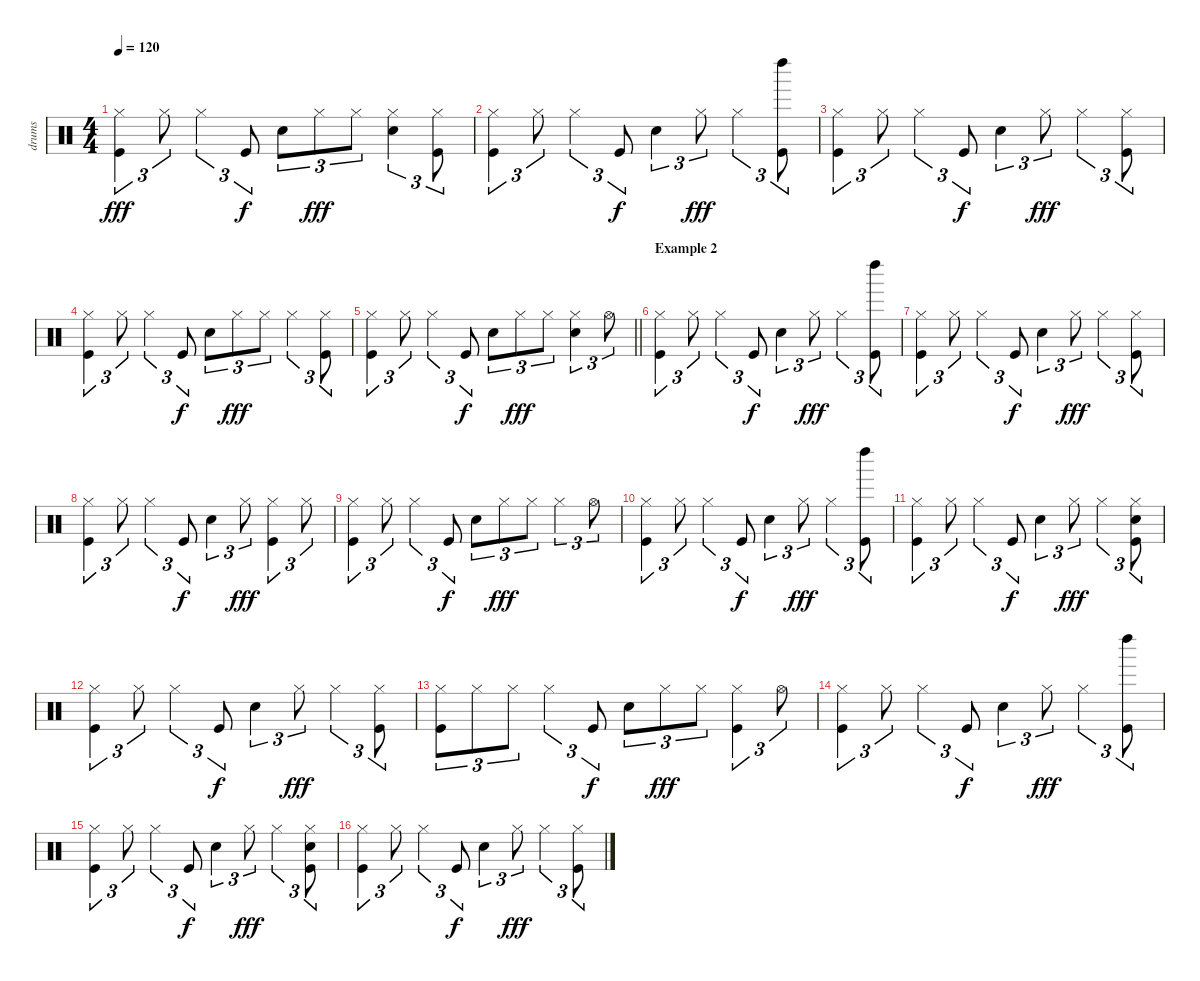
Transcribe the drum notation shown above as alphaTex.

\track ("drums" "drums") {instrument percussion}
\staff {score}
\articulation defaults
\ts (4 4)
\tempo 120
\clef neutral
\ks c
("Hi-Hat (closed)" "Kick (hit)").4{tu (3 2) dy fff} "Hi-Hat (closed)".8{tu (3 2)} "Hi-Hat (closed)".4{tu (3 2)} "Kick (hit)".8{tu (3 2) dy f} "Snare (hit) 2".8{tu (3 2)} "Hi-Hat (closed)".8{tu (3 2) dy fff} "Hi-Hat (closed)".8{tu (3 2)} ("Snare (hit) 2" "Hi-Hat (closed)").4{tu (3 2)} ("Hi-Hat (closed)" "Kick (hit)").8{tu (3 2)} |
("Hi-Hat (closed)" "Kick (hit)").4{tu (3 2)} "Hi-Hat (closed)".8{tu (3 2)} "Hi-Hat (closed)".4{tu (3 2)} "Kick (hit)".8{tu (3 2) dy f} "Snare (hit) 2".4{tu (3 2)} "Hi-Hat (closed)".8{tu (3 2) dy fff} "Hi-Hat (closed)".4{tu (3 2)} ("Left Maraca (hit)" "Kick (hit)").8{tu (3 2)} |
("Hi-Hat (closed)" "Kick (hit)").4{tu (3 2)} "Hi-Hat (closed)".8{tu (3 2)} "Hi-Hat (closed)".4{tu (3 2)} "Kick (hit)".8{tu (3 2) dy f} "Snare (hit) 2".4{tu (3 2)} "Hi-Hat (closed)".8{tu (3 2) dy fff} "Hi-Hat (closed)".4{tu (3 2)} ("Hi-Hat (closed)" "Kick (hit)").8{tu (3 2)} |
("Hi-Hat (closed)" "Kick (hit)").4{tu (3 2)} "Hi-Hat (closed)".8{tu (3 2)} "Hi-Hat (closed)".4{tu (3 2)} "Kick (hit)".8{tu (3 2) dy f} "Snare (hit) 2".8{tu (3 2)} "Hi-Hat (closed)".8{tu (3 2) dy fff} "Hi-Hat (closed)".8{tu (3 2)} "Hi-Hat (closed)".4{tu (3 2)} ("Hi-Hat (closed)" "Kick (hit)").8{tu (3 2)} |
\barLineRight lightlight
("Hi-Hat (closed)" "Kick (hit)").4{tu (3 2)} "Hi-Hat (closed)".8{tu (3 2)} "Hi-Hat (closed)".4{tu (3 2)} "Kick (hit)".8{tu (3 2) dy f} "Snare (hit) 2".8{tu (3 2)} "Hi-Hat (closed)".8{tu (3 2) dy fff} "Hi-Hat (closed)".8{tu (3 2)} ("Snare (hit) 2" "Hi-Hat (closed)").4{tu (3 2)} "Hi-Hat (open)".8{tu (3 2)} |
\section ("" "Example 2")
("Hi-Hat (closed)" "Kick (hit)").4{tu (3 2)} "Hi-Hat (closed)".8{tu (3 2)} "Hi-Hat (closed)".4{tu (3 2)} "Kick (hit)".8{tu (3 2) dy f} "Snare (hit) 2".4{tu (3 2)} "Hi-Hat (closed)".8{tu (3 2) dy fff} "Hi-Hat (closed)".4{tu (3 2)} ("Left Maraca (hit)" "Kick (hit)").8{tu (3 2)} |
("Hi-Hat (closed)" "Kick (hit)").4{tu (3 2)} "Hi-Hat (closed)".8{tu (3 2)} "Hi-Hat (closed)".4{tu (3 2)} "Kick (hit)".8{tu (3 2) dy f} "Snare (hit) 2".4{tu (3 2)} "Hi-Hat (closed)".8{tu (3 2) dy fff} "Hi-Hat (closed)".4{tu (3 2)} ("Hi-Hat (closed)" "Kick (hit)").8{tu (3 2)} |
("Hi-Hat (closed)" "Kick (hit)").4{tu (3 2)} "Hi-Hat (closed)".8{tu (3 2)} "Hi-Hat (closed)".4{tu (3 2)} "Kick (hit)".8{tu (3 2) dy f} "Snare (hit) 2".4{tu (3 2)} "Hi-Hat (closed)".8{tu (3 2) dy fff} ("Hi-Hat (closed)" "Kick (hit)").4{tu (3 2)} "Hi-Hat (closed)".8{tu (3 2)} |
("Hi-Hat (closed)" "Kick (hit)").4{tu (3 2)} "Hi-Hat (closed)".8{tu (3 2)} "Hi-Hat (closed)".4{tu (3 2)} "Kick (hit)".8{tu (3 2) dy f} "Snare (hit) 2".8{tu (3 2)} "Hi-Hat (closed)".8{tu (3 2) dy fff} "Hi-Hat (closed)".8{tu (3 2)} "Hi-Hat (closed)".4{tu (3 2)} "Hi-Hat (open)".8{tu (3 2)} |
("Hi-Hat (closed)" "Kick (hit)").4{tu (3 2)} "Hi-Hat (closed)".8{tu (3 2)} "Hi-Hat (closed)".4{tu (3 2)} "Kick (hit)".8{tu (3 2) dy f} "Snare (hit) 2".4{tu (3 2)} "Hi-Hat (closed)".8{tu (3 2) dy fff} "Hi-Hat (closed)".4{tu (3 2)} ("Left Maraca (hit)" "Kick (hit)").8{tu (3 2)} |
("Hi-Hat (closed)" "Kick (hit)").4{tu (3 2)} "Hi-Hat (closed)".8{tu (3 2)} "Hi-Hat (closed)".4{tu (3 2)} "Kick (hit)".8{tu (3 2) dy f} "Snare (hit) 2".4{tu (3 2)} "Hi-Hat (closed)".8{tu (3 2) dy fff} "Hi-Hat (closed)".4{tu (3 2)} ("Snare (hit) 2" "Hi-Hat (closed)" "Kick (hit)").8{tu (3 2)} |
("Hi-Hat (closed)" "Kick (hit)").4{tu (3 2)} "Hi-Hat (closed)".8{tu (3 2)} "Hi-Hat (closed)".4{tu (3 2)} "Kick (hit)".8{tu (3 2) dy f} "Snare (hit) 2".4{tu (3 2)} "Hi-Hat (closed)".8{tu (3 2) dy fff} "Hi-Hat (closed)".4{tu (3 2)} ("Hi-Hat (closed)" "Kick (hit)").8{tu (3 2)} |
("Hi-Hat (closed)" "Kick (hit)").8{tu (3 2)} "Hi-Hat (closed)".8{tu (3 2)} "Hi-Hat (closed)".8{tu (3 2)} "Hi-Hat (closed)".4{tu (3 2)} "Kick (hit)".8{tu (3 2) dy f} "Snare (hit) 2".8{tu (3 2)} "Hi-Hat (closed)".8{tu (3 2) dy fff} "Hi-Hat (closed)".8{tu (3 2)} ("Hi-Hat (closed)" "Kick (hit)").4{tu (3 2)} "Hi-Hat (open)".8{tu (3 2)} |
("Hi-Hat (closed)" "Kick (hit)").4{tu (3 2)} "Hi-Hat (closed)".8{tu (3 2)} "Hi-Hat (closed)".4{tu (3 2)} "Kick (hit)".8{tu (3 2) dy f} "Snare (hit) 2".4{tu (3 2)} "Hi-Hat (closed)".8{tu (3 2) dy fff} "Hi-Hat (closed)".4{tu (3 2)} ("Left Maraca (hit)" "Kick (hit)").8{tu (3 2)} |
("Hi-Hat (closed)" "Kick (hit)").4{tu (3 2)} "Hi-Hat (closed)".8{tu (3 2)} "Hi-Hat (closed)".4{tu (3 2)} "Kick (hit)".8{tu (3 2) dy f} "Snare (hit) 2".4{tu (3 2)} "Hi-Hat (closed)".8{tu (3 2) dy fff} "Hi-Hat (closed)".4{tu (3 2)} ("Snare (hit) 2" "Hi-Hat (closed)" "Kick (hit)").8{tu (3 2)} |
("Hi-Hat (closed)" "Kick (hit)").4{tu (3 2)} "Hi-Hat (closed)".8{tu (3 2)} "Hi-Hat (closed)".4{tu (3 2)} "Kick (hit)".8{tu (3 2) dy f} "Snare (hit) 2".4{tu (3 2)} "Hi-Hat (closed)".8{tu (3 2) dy fff} "Hi-Hat (closed)".4{tu (3 2)} ("Hi-Hat (closed)" "Kick (hit)").8{tu (3 2)}
